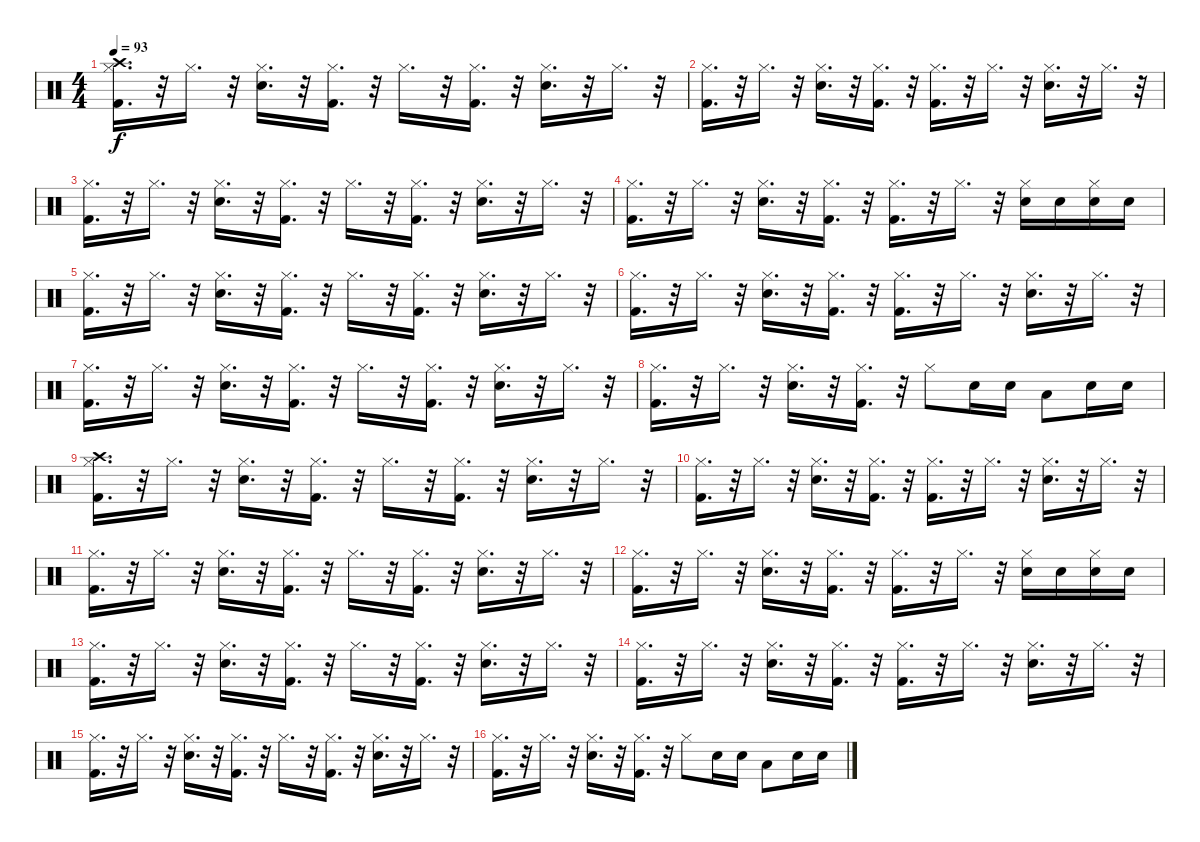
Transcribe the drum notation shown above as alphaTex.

\track "" {instrument percussion}
\staff {score}
\articulation defaults
\ts (4 4)
\tempo 93
\clef neutral
\ks c
("Hi-Hat (closed)" "Crash high (hit)" "Kick (hit) 2").16{d dy f} r.32 "Hi-Hat (closed)".16{d} r.32 ("Hi-Hat (closed)" "Snare (hit) 2").16{d} r.32 ("Hi-Hat (closed)" "Kick (hit) 2").16{d} r.32 "Hi-Hat (closed)".16{d} r.32 ("Hi-Hat (closed)" "Kick (hit) 2").16{d} r.32 ("Hi-Hat (closed)" "Snare (hit) 2").16{d} r.32 "Hi-Hat (closed)".16{d} r.32 |
("Hi-Hat (closed)" "Kick (hit) 2").16{d} r.32 "Hi-Hat (closed)".16{d} r.32 ("Hi-Hat (closed)" "Snare (hit) 2").16{d} r.32 ("Hi-Hat (closed)" "Kick (hit) 2").16{d} r.32 ("Hi-Hat (closed)" "Kick (hit) 2").16{d} r.32 "Hi-Hat (closed)".16{d} r.32 ("Hi-Hat (closed)" "Snare (hit) 2").16{d} r.32 "Hi-Hat (closed)".16{d} r.32 |
("Hi-Hat (closed)" "Kick (hit) 2").16{d} r.32 "Hi-Hat (closed)".16{d} r.32 ("Hi-Hat (closed)" "Snare (hit) 2").16{d} r.32 ("Hi-Hat (closed)" "Kick (hit) 2").16{d} r.32 "Hi-Hat (closed)".16{d} r.32 ("Hi-Hat (closed)" "Kick (hit) 2").16{d} r.32 ("Hi-Hat (closed)" "Snare (hit) 2").16{d} r.32 "Hi-Hat (closed)".16{d} r.32 |
("Hi-Hat (closed)" "Kick (hit) 2").16{d} r.32 "Hi-Hat (closed)".16{d} r.32 ("Hi-Hat (closed)" "Snare (hit) 2").16{d} r.32 ("Hi-Hat (closed)" "Kick (hit) 2").16{d} r.32 ("Hi-Hat (closed)" "Kick (hit) 2").16{d} r.32 "Hi-Hat (closed)".16{d} r.32 ("Hi-Hat (closed)" "Snare (hit) 2").16 "Snare (hit) 2".16 ("Snare (hit) 2" "Hi-Hat (closed)").16 "Snare (hit) 2".16 |
("Hi-Hat (closed)" "Kick (hit) 2").16{d} r.32 "Hi-Hat (closed)".16{d} r.32 ("Hi-Hat (closed)" "Snare (hit) 2").16{d} r.32 ("Hi-Hat (closed)" "Kick (hit) 2").16{d} r.32 "Hi-Hat (closed)".16{d} r.32 ("Hi-Hat (closed)" "Kick (hit) 2").16{d} r.32 ("Hi-Hat (closed)" "Snare (hit) 2").16{d} r.32 "Hi-Hat (closed)".16{d} r.32 |
("Hi-Hat (closed)" "Kick (hit) 2").16{d} r.32 "Hi-Hat (closed)".16{d} r.32 ("Hi-Hat (closed)" "Snare (hit) 2").16{d} r.32 ("Hi-Hat (closed)" "Kick (hit) 2").16{d} r.32 ("Hi-Hat (closed)" "Kick (hit) 2").16{d} r.32 "Hi-Hat (closed)".16{d} r.32 ("Hi-Hat (closed)" "Snare (hit) 2").16{d} r.32 "Hi-Hat (closed)".16{d} r.32 |
("Hi-Hat (closed)" "Kick (hit) 2").16{d} r.32 "Hi-Hat (closed)".16{d} r.32 ("Hi-Hat (closed)" "Snare (hit) 2").16{d} r.32 ("Hi-Hat (closed)" "Kick (hit) 2").16{d} r.32 "Hi-Hat (closed)".16{d} r.32 ("Hi-Hat (closed)" "Kick (hit) 2").16{d} r.32 ("Hi-Hat (closed)" "Snare (hit) 2").16{d} r.32 "Hi-Hat (closed)".16{d} r.32 |
("Hi-Hat (closed)" "Kick (hit) 2").16{d} r.32 "Hi-Hat (closed)".16{d} r.32 ("Hi-Hat (closed)" "Snare (hit) 2").16{d} r.32 ("Hi-Hat (closed)" "Kick (hit) 2").16{d} r.32 "Hi-Hat (closed)".8 "Snare (hit) 2".16 "Snare (hit) 2".16 "Low Tom (hit)".8 "Snare (hit) 2".16 "Snare (hit) 2".16 |
("Hi-Hat (closed)" "Crash high (hit)" "Kick (hit) 2").16{d} r.32 "Hi-Hat (closed)".16{d} r.32 ("Hi-Hat (closed)" "Snare (hit) 2").16{d} r.32 ("Hi-Hat (closed)" "Kick (hit) 2").16{d} r.32 "Hi-Hat (closed)".16{d} r.32 ("Hi-Hat (closed)" "Kick (hit) 2").16{d} r.32 ("Hi-Hat (closed)" "Snare (hit) 2").16{d} r.32 "Hi-Hat (closed)".16{d} r.32 |
("Hi-Hat (closed)" "Kick (hit) 2").16{d} r.32 "Hi-Hat (closed)".16{d} r.32 ("Hi-Hat (closed)" "Snare (hit) 2").16{d} r.32 ("Hi-Hat (closed)" "Kick (hit) 2").16{d} r.32 ("Hi-Hat (closed)" "Kick (hit) 2").16{d} r.32 "Hi-Hat (closed)".16{d} r.32 ("Hi-Hat (closed)" "Snare (hit) 2").16{d} r.32 "Hi-Hat (closed)".16{d} r.32 |
("Hi-Hat (closed)" "Kick (hit) 2").16{d} r.32 "Hi-Hat (closed)".16{d} r.32 ("Hi-Hat (closed)" "Snare (hit) 2").16{d} r.32 ("Hi-Hat (closed)" "Kick (hit) 2").16{d} r.32 "Hi-Hat (closed)".16{d} r.32 ("Hi-Hat (closed)" "Kick (hit) 2").16{d} r.32 ("Hi-Hat (closed)" "Snare (hit) 2").16{d} r.32 "Hi-Hat (closed)".16{d} r.32 |
("Hi-Hat (closed)" "Kick (hit) 2").16{d} r.32 "Hi-Hat (closed)".16{d} r.32 ("Hi-Hat (closed)" "Snare (hit) 2").16{d} r.32 ("Hi-Hat (closed)" "Kick (hit) 2").16{d} r.32 ("Hi-Hat (closed)" "Kick (hit) 2").16{d} r.32 "Hi-Hat (closed)".16{d} r.32 ("Hi-Hat (closed)" "Snare (hit) 2").16 "Snare (hit) 2".16 ("Snare (hit) 2" "Hi-Hat (closed)").16 "Snare (hit) 2".16 |
("Hi-Hat (closed)" "Kick (hit) 2").16{d} r.32 "Hi-Hat (closed)".16{d} r.32 ("Hi-Hat (closed)" "Snare (hit) 2").16{d} r.32 ("Hi-Hat (closed)" "Kick (hit) 2").16{d} r.32 "Hi-Hat (closed)".16{d} r.32 ("Hi-Hat (closed)" "Kick (hit) 2").16{d} r.32 ("Hi-Hat (closed)" "Snare (hit) 2").16{d} r.32 "Hi-Hat (closed)".16{d} r.32 |
("Hi-Hat (closed)" "Kick (hit) 2").16{d} r.32 "Hi-Hat (closed)".16{d} r.32 ("Hi-Hat (closed)" "Snare (hit) 2").16{d} r.32 ("Hi-Hat (closed)" "Kick (hit) 2").16{d} r.32 ("Hi-Hat (closed)" "Kick (hit) 2").16{d} r.32 "Hi-Hat (closed)".16{d} r.32 ("Hi-Hat (closed)" "Snare (hit) 2").16{d} r.32 "Hi-Hat (closed)".16{d} r.32 |
("Hi-Hat (closed)" "Kick (hit) 2").16{d} r.32 "Hi-Hat (closed)".16{d} r.32 ("Hi-Hat (closed)" "Snare (hit) 2").16{d} r.32 ("Hi-Hat (closed)" "Kick (hit) 2").16{d} r.32 "Hi-Hat (closed)".16{d} r.32 ("Hi-Hat (closed)" "Kick (hit) 2").16{d} r.32 ("Hi-Hat (closed)" "Snare (hit) 2").16{d} r.32 "Hi-Hat (closed)".16{d} r.32 |
("Hi-Hat (closed)" "Kick (hit) 2").16{d} r.32 "Hi-Hat (closed)".16{d} r.32 ("Hi-Hat (closed)" "Snare (hit) 2").16{d} r.32 ("Hi-Hat (closed)" "Kick (hit) 2").16{d} r.32 "Hi-Hat (closed)".8 "Snare (hit) 2".16 "Snare (hit) 2".16 "Low Tom (hit)".8 "Snare (hit) 2".16 "Snare (hit) 2".16
